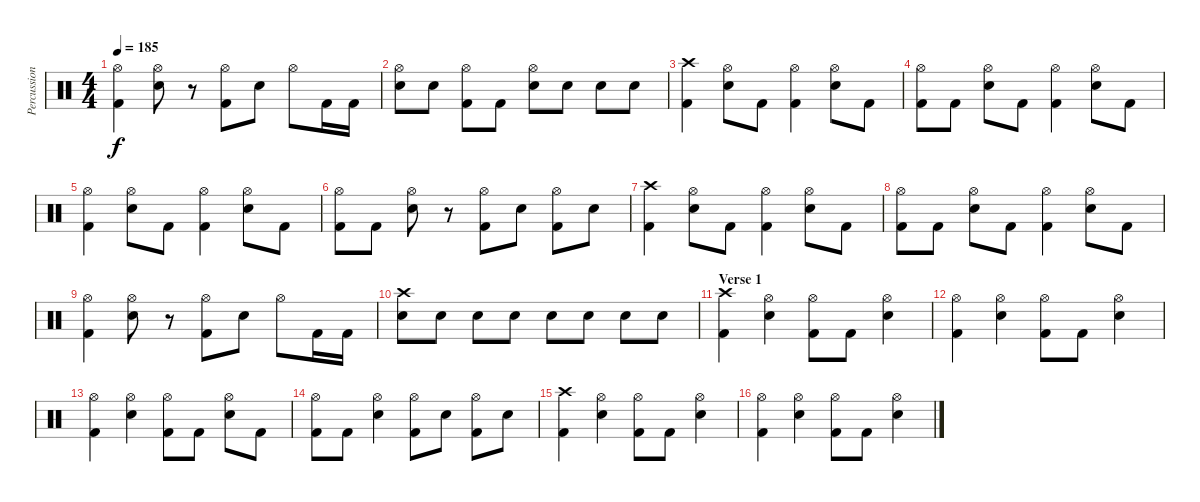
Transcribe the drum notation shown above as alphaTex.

\track ("Percussions" "Percussion") {instrument percussion}
\staff {score}
\articulation defaults
\ts (4 4)
\tempo 185
\clef neutral
\ks c
("Hi-Hat (open)" "Kick (hit) 2").4{dy f} ("Hi-Hat (open)" "Snare (hit) 2").8 r.8 ("Hi-Hat (open)" "Kick (hit) 2").8 "Snare (hit) 2".8 "Hi-Hat (open)".8 "Kick (hit) 2".16 "Kick (hit) 2".16 |
("Hi-Hat (open)" "Snare (hit) 2").8 "Snare (hit) 2".8 ("Hi-Hat (open)" "Kick (hit) 2").8 "Kick (hit) 2".8 ("Hi-Hat (open)" "Snare (hit) 2").8 "Snare (hit) 2".8 "Snare (hit) 2".8 "Snare (hit) 2".8 |
("Crash high (hit)" "Kick (hit) 2").4 ("Hi-Hat (open)" "Snare (hit) 2").8 "Kick (hit) 2".8 ("Hi-Hat (open)" "Kick (hit) 2").4 ("Hi-Hat (open)" "Snare (hit) 2").8 "Kick (hit) 2".8 |
("Hi-Hat (open)" "Kick (hit) 2").8 "Kick (hit) 2".8 ("Hi-Hat (open)" "Snare (hit) 2").8 "Kick (hit) 2".8 ("Hi-Hat (open)" "Kick (hit) 2").4 ("Hi-Hat (open)" "Snare (hit) 2").8 "Kick (hit) 2".8 |
("Hi-Hat (open)" "Kick (hit) 2").4 ("Hi-Hat (open)" "Snare (hit) 2").8 "Kick (hit) 2".8 ("Hi-Hat (open)" "Kick (hit) 2").4 ("Hi-Hat (open)" "Snare (hit) 2").8 "Kick (hit) 2".8 |
("Hi-Hat (open)" "Kick (hit) 2").8 "Kick (hit) 2".8 ("Hi-Hat (open)" "Snare (hit) 2").8 r.8 ("Hi-Hat (open)" "Kick (hit) 2").8 "Snare (hit) 2".8 ("Hi-Hat (open)" "Kick (hit) 2").8 "Snare (hit) 2".8 |
("Crash high (hit)" "Kick (hit) 2").4 ("Hi-Hat (open)" "Snare (hit) 2").8 "Kick (hit) 2".8 ("Hi-Hat (open)" "Kick (hit) 2").4 ("Hi-Hat (open)" "Snare (hit) 2").8 "Kick (hit) 2".8 |
("Hi-Hat (open)" "Kick (hit) 2").8 "Kick (hit) 2".8 ("Hi-Hat (open)" "Snare (hit) 2").8 "Kick (hit) 2".8 ("Hi-Hat (open)" "Kick (hit) 2").4 ("Hi-Hat (open)" "Snare (hit) 2").8 "Kick (hit) 2".8 |
("Hi-Hat (open)" "Kick (hit) 2").4 ("Hi-Hat (open)" "Snare (hit) 2").8 r.8 ("Hi-Hat (open)" "Kick (hit) 2").8 "Snare (hit) 2".8 "Hi-Hat (open)".8 "Kick (hit) 2".16 "Kick (hit) 2".16 |
("Crash high (hit)" "Snare (hit) 2").8 "Snare (hit) 2".8 "Snare (hit) 2".8 "Snare (hit) 2".8 "Snare (hit) 2".8 "Snare (hit) 2".8 "Snare (hit) 2".8 "Snare (hit) 2".8 |
\section ("" "Verse 1")
("Crash high (hit)" "Kick (hit) 2").4 ("Hi-Hat (open)" "Snare (hit) 2").4 ("Hi-Hat (open)" "Kick (hit) 2").8 "Kick (hit) 2".8 ("Hi-Hat (open)" "Snare (hit) 2").4 |
("Hi-Hat (open)" "Kick (hit) 2").4 ("Hi-Hat (open)" "Snare (hit) 2").4 ("Hi-Hat (open)" "Kick (hit) 2").8 "Kick (hit) 2".8 ("Hi-Hat (open)" "Snare (hit) 2").4 |
("Hi-Hat (open)" "Kick (hit) 2").4 ("Hi-Hat (open)" "Snare (hit) 2").4 ("Hi-Hat (open)" "Kick (hit) 2").8 "Kick (hit) 2".8 ("Hi-Hat (open)" "Snare (hit) 2").8 "Kick (hit) 2".8 |
("Hi-Hat (open)" "Kick (hit) 2").8 "Kick (hit) 2".8 ("Hi-Hat (open)" "Snare (hit) 2").4 ("Hi-Hat (open)" "Kick (hit) 2").8 "Snare (hit) 2".8 ("Hi-Hat (open)" "Kick (hit) 2").8 "Snare (hit) 2".8 |
("Crash high (hit)" "Kick (hit) 2").4 ("Hi-Hat (open)" "Snare (hit) 2").4 ("Hi-Hat (open)" "Kick (hit) 2").8 "Kick (hit) 2".8 ("Hi-Hat (open)" "Snare (hit) 2").4 |
("Hi-Hat (open)" "Kick (hit) 2").4 ("Hi-Hat (open)" "Snare (hit) 2").4 ("Hi-Hat (open)" "Kick (hit) 2").8 "Kick (hit) 2".8 ("Hi-Hat (open)" "Snare (hit) 2").4
